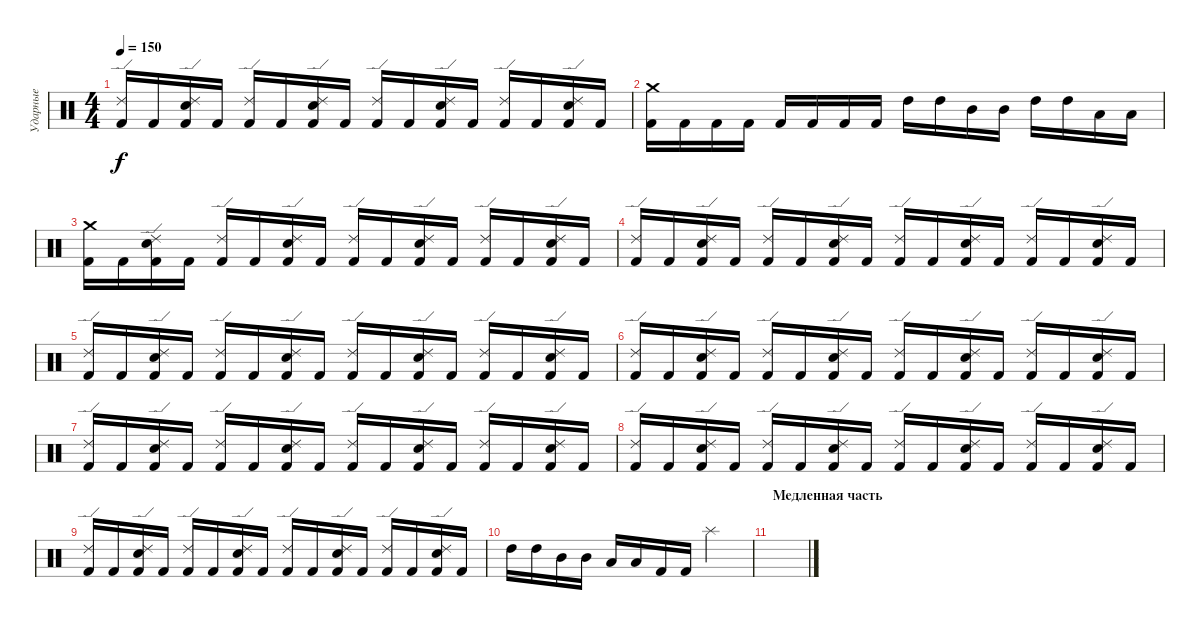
\track ("Ударные" "Ударные") {instrument percussion}
\staff {score}
\articulation defaults
\ts (4 4)
\tempo 150
\clef neutral
\ks c
("Kick (hit) 2" "Ride (edge) 2").16{dy f} "Kick (hit) 2".16 ("Kick (hit) 2" "Electric Snare (hit)" "Ride (edge) 2").16 "Kick (hit) 2".16 ("Kick (hit) 2" "Ride (edge) 2").16 "Kick (hit) 2".16 ("Kick (hit) 2" "Electric Snare (hit)" "Ride (edge) 2").16 "Kick (hit) 2".16 ("Kick (hit) 2" "Ride (edge) 2").16 "Kick (hit) 2".16 ("Kick (hit) 2" "Electric Snare (hit)" "Ride (edge) 2").16 "Kick (hit) 2".16 ("Kick (hit) 2" "Ride (edge) 2").16 "Kick (hit) 2".16 ("Kick (hit) 2" "Electric Snare (hit)" "Ride (edge) 2").16 "Kick (hit) 2".16 |
("Kick (hit) 2" "Crash medium (hit)").16 "Kick (hit) 2".16 "Kick (hit) 2".16 "Kick (hit) 2".16 "Kick (hit) 2".16 "Kick (hit) 2".16 "Kick (hit) 2".16 "Kick (hit) 2".16 "High Tom (hit)".16 "High Tom (hit)".16 "Mid Tom (hit)".16 "Mid Tom (hit)".16 "High Tom (hit)".16 "High Tom (hit)".16 "Low Tom (hit)".16 "Low Tom (hit)".16 |
("Kick (hit) 2" "Crash medium (hit)").16 "Kick (hit) 2".16 ("Kick (hit) 2" "Electric Snare (hit)" "Ride (edge) 2").16 "Kick (hit) 2".16 ("Kick (hit) 2" "Ride (edge) 2").16 "Kick (hit) 2".16 ("Kick (hit) 2" "Electric Snare (hit)" "Ride (edge) 2").16 "Kick (hit) 2".16 ("Kick (hit) 2" "Ride (edge) 2").16 "Kick (hit) 2".16 ("Kick (hit) 2" "Electric Snare (hit)" "Ride (edge) 2").16 "Kick (hit) 2".16 ("Kick (hit) 2" "Ride (edge) 2").16 "Kick (hit) 2".16 ("Kick (hit) 2" "Electric Snare (hit)" "Ride (edge) 2").16 "Kick (hit) 2".16 |
("Kick (hit) 2" "Ride (edge) 2").16 "Kick (hit) 2".16 ("Kick (hit) 2" "Electric Snare (hit)" "Ride (edge) 2").16 "Kick (hit) 2".16 ("Kick (hit) 2" "Ride (edge) 2").16 "Kick (hit) 2".16 ("Kick (hit) 2" "Electric Snare (hit)" "Ride (edge) 2").16 "Kick (hit) 2".16 ("Kick (hit) 2" "Ride (edge) 2").16 "Kick (hit) 2".16 ("Kick (hit) 2" "Electric Snare (hit)" "Ride (edge) 2").16 "Kick (hit) 2".16 ("Kick (hit) 2" "Ride (edge) 2").16 "Kick (hit) 2".16 ("Kick (hit) 2" "Electric Snare (hit)" "Ride (edge) 2").16 "Kick (hit) 2".16 |
("Kick (hit) 2" "Ride (edge) 2").16 "Kick (hit) 2".16 ("Kick (hit) 2" "Electric Snare (hit)" "Ride (edge) 2").16 "Kick (hit) 2".16 ("Kick (hit) 2" "Ride (edge) 2").16 "Kick (hit) 2".16 ("Kick (hit) 2" "Electric Snare (hit)" "Ride (edge) 2").16 "Kick (hit) 2".16 ("Kick (hit) 2" "Ride (edge) 2").16 "Kick (hit) 2".16 ("Kick (hit) 2" "Electric Snare (hit)" "Ride (edge) 2").16 "Kick (hit) 2".16 ("Kick (hit) 2" "Ride (edge) 2").16 "Kick (hit) 2".16 ("Kick (hit) 2" "Electric Snare (hit)" "Ride (edge) 2").16 "Kick (hit) 2".16 |
("Kick (hit) 2" "Ride (edge) 2").16 "Kick (hit) 2".16 ("Kick (hit) 2" "Electric Snare (hit)" "Ride (edge) 2").16 "Kick (hit) 2".16 ("Kick (hit) 2" "Ride (edge) 2").16 "Kick (hit) 2".16 ("Kick (hit) 2" "Electric Snare (hit)" "Ride (edge) 2").16 "Kick (hit) 2".16 ("Kick (hit) 2" "Ride (edge) 2").16 "Kick (hit) 2".16 ("Kick (hit) 2" "Electric Snare (hit)" "Ride (edge) 2").16 "Kick (hit) 2".16 ("Kick (hit) 2" "Ride (edge) 2").16 "Kick (hit) 2".16 ("Kick (hit) 2" "Electric Snare (hit)" "Ride (edge) 2").16 "Kick (hit) 2".16 |
("Kick (hit) 2" "Ride (edge) 2").16 "Kick (hit) 2".16 ("Kick (hit) 2" "Electric Snare (hit)" "Ride (edge) 2").16 "Kick (hit) 2".16 ("Kick (hit) 2" "Ride (edge) 2").16 "Kick (hit) 2".16 ("Kick (hit) 2" "Electric Snare (hit)" "Ride (edge) 2").16 "Kick (hit) 2".16 ("Kick (hit) 2" "Ride (edge) 2").16 "Kick (hit) 2".16 ("Kick (hit) 2" "Electric Snare (hit)" "Ride (edge) 2").16 "Kick (hit) 2".16 ("Kick (hit) 2" "Ride (edge) 2").16 "Kick (hit) 2".16 ("Kick (hit) 2" "Electric Snare (hit)" "Ride (edge) 2").16 "Kick (hit) 2".16 |
("Kick (hit) 2" "Ride (edge) 2").16 "Kick (hit) 2".16 ("Kick (hit) 2" "Electric Snare (hit)" "Ride (edge) 2").16 "Kick (hit) 2".16 ("Kick (hit) 2" "Ride (edge) 2").16 "Kick (hit) 2".16 ("Kick (hit) 2" "Electric Snare (hit)" "Ride (edge) 2").16 "Kick (hit) 2".16 ("Kick (hit) 2" "Ride (edge) 2").16 "Kick (hit) 2".16 ("Kick (hit) 2" "Electric Snare (hit)" "Ride (edge) 2").16 "Kick (hit) 2".16 ("Kick (hit) 2" "Ride (edge) 2").16 "Kick (hit) 2".16 ("Kick (hit) 2" "Electric Snare (hit)" "Ride (edge) 2").16 "Kick (hit) 2".16 |
("Kick (hit) 2" "Ride (edge) 2").16 "Kick (hit) 2".16 ("Kick (hit) 2" "Electric Snare (hit)" "Ride (edge) 2").16 "Kick (hit) 2".16 ("Kick (hit) 2" "Ride (edge) 2").16 "Kick (hit) 2".16 ("Kick (hit) 2" "Electric Snare (hit)" "Ride (edge) 2").16 "Kick (hit) 2".16 ("Kick (hit) 2" "Ride (edge) 2").16 "Kick (hit) 2".16 ("Kick (hit) 2" "Electric Snare (hit)" "Ride (edge) 2").16 "Kick (hit) 2".16 ("Kick (hit) 2" "Ride (edge) 2").16 "Kick (hit) 2".16 ("Kick (hit) 2" "Electric Snare (hit)" "Ride (edge) 2").16 "Kick (hit) 2".16 |
"High Tom (hit)".16 "High Tom (hit)".16 "Mid Tom (hit)".16 "Mid Tom (hit)".16 "Low Tom (hit)".16 "Low Tom (hit)".16 "Kick (hit) 2".16 "Kick (hit) 2".16 "Splash (hit)".2 |
\section ("" "Медленная часть")
